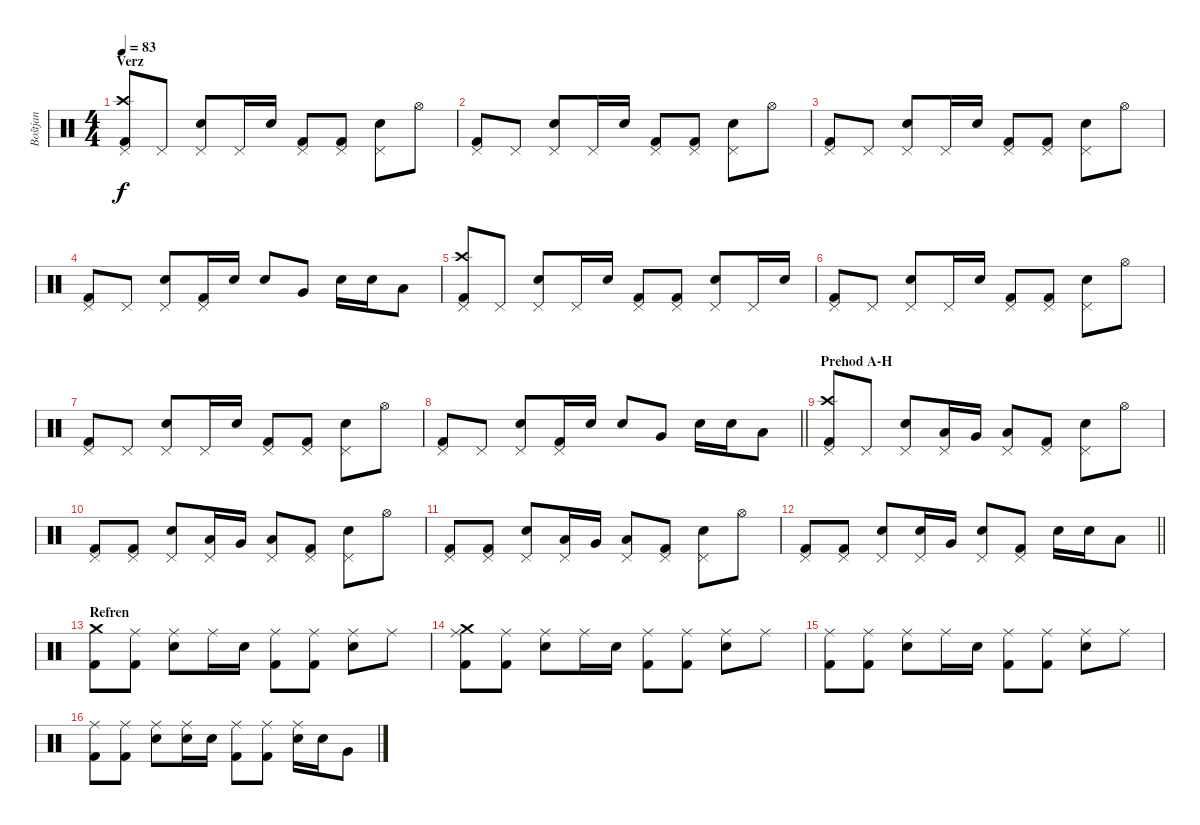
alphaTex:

\track ("Boštjan" "Boštjan") {instrument percussion}
\staff {score}
\articulation defaults
\ts (4 4)
\section ("" "Verz")
\tempo 83
\clef neutral
\ks c
("Pedal Hi-Hat (hit)" "Crash high (hit)" "Kick (hit) 2").8{dy f} "Pedal Hi-Hat (hit)".8 ("Pedal Hi-Hat (hit)" "Snare (hit) 2").8 "Pedal Hi-Hat (hit)".16 "Snare (hit) 2".16 ("Pedal Hi-Hat (hit)" "Kick (hit) 2").8 ("Pedal Hi-Hat (hit)" "Kick (hit) 2").8 ("Pedal Hi-Hat (hit)" "Snare (hit) 2").8 "Hi-Hat (open)".8 |
("Pedal Hi-Hat (hit)" "Kick (hit) 2").8 "Pedal Hi-Hat (hit)".8 ("Pedal Hi-Hat (hit)" "Snare (hit) 2").8 "Pedal Hi-Hat (hit)".16 "Snare (hit) 2".16 ("Pedal Hi-Hat (hit)" "Kick (hit) 2").8 ("Pedal Hi-Hat (hit)" "Kick (hit) 2").8 ("Pedal Hi-Hat (hit)" "Snare (hit) 2").8 "Hi-Hat (open)".8 |
("Pedal Hi-Hat (hit)" "Kick (hit) 2").8 "Pedal Hi-Hat (hit)".8 ("Pedal Hi-Hat (hit)" "Snare (hit) 2").8 "Pedal Hi-Hat (hit)".16 "Snare (hit) 2".16 ("Pedal Hi-Hat (hit)" "Kick (hit) 2").8 ("Pedal Hi-Hat (hit)" "Kick (hit) 2").8 ("Pedal Hi-Hat (hit)" "Snare (hit) 2").8 "Hi-Hat (open)".8 |
("Pedal Hi-Hat (hit)" "Kick (hit) 2").8 "Pedal Hi-Hat (hit)".8 ("Pedal Hi-Hat (hit)" "Snare (hit) 2").8 ("Pedal Hi-Hat (hit)" "Kick (hit) 2").16 "Snare (hit) 2".16 "Snare (hit) 2".8 "Very Low Tom (hit)".8 "Snare (hit) 2".16 "Snare (hit) 2".16 "Low Floor Tom (hit)".8 |
("Pedal Hi-Hat (hit)" "Crash high (hit)" "Kick (hit) 2").8 "Pedal Hi-Hat (hit)".8 ("Pedal Hi-Hat (hit)" "Snare (hit) 2").8 "Pedal Hi-Hat (hit)".16 "Snare (hit) 2".16 ("Pedal Hi-Hat (hit)" "Kick (hit) 2").8 ("Pedal Hi-Hat (hit)" "Kick (hit) 2").8 ("Pedal Hi-Hat (hit)" "Snare (hit) 2").8 "Pedal Hi-Hat (hit)".16 "Snare (hit) 2".16 |
("Pedal Hi-Hat (hit)" "Kick (hit) 2").8 "Pedal Hi-Hat (hit)".8 ("Pedal Hi-Hat (hit)" "Snare (hit) 2").8 "Pedal Hi-Hat (hit)".16 "Snare (hit) 2".16 ("Pedal Hi-Hat (hit)" "Kick (hit) 2").8 ("Pedal Hi-Hat (hit)" "Kick (hit) 2").8 ("Pedal Hi-Hat (hit)" "Snare (hit) 2").8 "Hi-Hat (open)".8 |
("Pedal Hi-Hat (hit)" "Kick (hit) 2").8 "Pedal Hi-Hat (hit)".8 ("Pedal Hi-Hat (hit)" "Snare (hit) 2").8 "Pedal Hi-Hat (hit)".16 "Snare (hit) 2".16 ("Pedal Hi-Hat (hit)" "Kick (hit) 2").8 ("Pedal Hi-Hat (hit)" "Kick (hit) 2").8 ("Pedal Hi-Hat (hit)" "Snare (hit) 2").8 "Hi-Hat (open)".8 |
\barLineRight lightlight
("Pedal Hi-Hat (hit)" "Kick (hit) 2").8 "Pedal Hi-Hat (hit)".8 ("Pedal Hi-Hat (hit)" "Snare (hit) 2").8 ("Pedal Hi-Hat (hit)" "Kick (hit) 2").16 "Snare (hit) 2".16 "Snare (hit) 2".8 "Very Low Tom (hit)".8 "Snare (hit) 2".16 "Snare (hit) 2".16 "Low Floor Tom (hit)".8 |
\section ("" "Prehod A-H")
("Pedal Hi-Hat (hit)" "Crash high (hit)" "Kick (hit) 2").8 "Pedal Hi-Hat (hit)".8 ("Pedal Hi-Hat (hit)" "Snare (hit) 2").8 ("Pedal Hi-Hat (hit)" "Low Tom (hit)").16 "Very Low Tom (hit)".16 ("Pedal Hi-Hat (hit)" "Low Floor Tom (hit)").8 ("Pedal Hi-Hat (hit)" "Kick (hit) 2").8 ("Pedal Hi-Hat (hit)" "Snare (hit) 2").8 "Hi-Hat (open)".8 |
("Pedal Hi-Hat (hit)" "Kick (hit) 2").8 ("Pedal Hi-Hat (hit)" "Kick (hit) 2").8 ("Pedal Hi-Hat (hit)" "Snare (hit) 2").8 ("Pedal Hi-Hat (hit)" "Low Tom (hit)").16 "Very Low Tom (hit)".16 ("Pedal Hi-Hat (hit)" "Low Floor Tom (hit)").8 ("Pedal Hi-Hat (hit)" "Kick (hit) 2").8 ("Pedal Hi-Hat (hit)" "Snare (hit) 2").8 "Hi-Hat (open)".8 |
("Pedal Hi-Hat (hit)" "Kick (hit) 2").8 ("Pedal Hi-Hat (hit)" "Kick (hit) 2").8 ("Pedal Hi-Hat (hit)" "Snare (hit) 2").8 ("Pedal Hi-Hat (hit)" "Low Tom (hit)").16 "Very Low Tom (hit)".16 ("Pedal Hi-Hat (hit)" "Low Floor Tom (hit)").8 ("Pedal Hi-Hat (hit)" "Kick (hit) 2").8 ("Pedal Hi-Hat (hit)" "Snare (hit) 2").8 "Hi-Hat (open)".8 |
\barLineRight lightlight
("Pedal Hi-Hat (hit)" "Kick (hit) 2").8 ("Pedal Hi-Hat (hit)" "Kick (hit) 2").8 ("Pedal Hi-Hat (hit)" "Snare (hit) 2").8 ("Pedal Hi-Hat (hit)" "Snare (hit) 2").16 "Very Low Tom (hit)".16 ("Pedal Hi-Hat (hit)" "Snare (hit) 2").8 ("Pedal Hi-Hat (hit)" "Kick (hit) 2").8 "Snare (hit) 2".16 "Snare (hit) 2".16 "Low Floor Tom (hit)".8 |
\section ("" "Refren")
("Crash medium (hit)" "Kick (hit) 2").8 ("Ride (middle)" "Kick (hit) 2").8 ("Ride (middle)" "Snare (hit) 2").8 "Ride (middle)".16 "Snare (hit) 2".16 ("Ride (middle)" "Kick (hit) 2").8 ("Ride (middle)" "Kick (hit) 2").8 ("Ride (middle)" "Snare (hit) 2").8 "Ride (middle)".8 |
("Ride (middle)" "Crash medium (hit)" "Kick (hit) 2").8 ("Ride (middle)" "Kick (hit) 2").8 ("Ride (middle)" "Snare (hit) 2").8 "Ride (middle)".16 "Snare (hit) 2".16 ("Ride (middle)" "Kick (hit) 2").8 ("Ride (middle)" "Kick (hit) 2").8 ("Ride (middle)" "Snare (hit) 2").8 "Ride (middle)".8 |
("Ride (middle)" "Kick (hit) 2").8 ("Ride (middle)" "Kick (hit) 2").8 ("Ride (middle)" "Snare (hit) 2").8 "Ride (middle)".16 "Snare (hit) 2".16 ("Ride (middle)" "Kick (hit) 2").8 ("Ride (middle)" "Kick (hit) 2").8 ("Ride (middle)" "Snare (hit) 2").8 "Ride (middle)".8 |
("Ride (middle)" "Kick (hit) 2").8 ("Ride (middle)" "Kick (hit) 2").8 ("Ride (middle)" "Snare (hit) 2").8 ("Ride (middle)" "Snare (hit) 2").16 "Snare (hit) 2".16 ("Ride (middle)" "Kick (hit) 2").8 ("Ride (middle)" "Kick (hit) 2").8 ("Ride (middle)" "Snare (hit) 2").16 "Snare (hit) 2".16 "Very Low Tom (hit)".8
